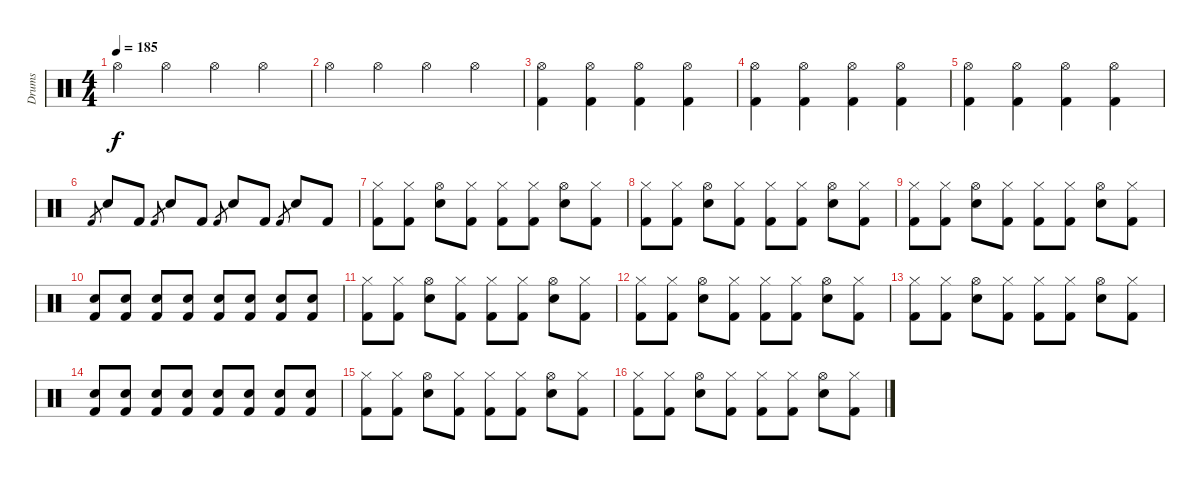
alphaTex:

\track ("Drums" "Drums") {instrument percussion}
\staff {score}
\articulation defaults
\ts (4 4)
\tempo 185
\clef neutral
\ks c "Hi-Hat (open)".4{dy f} "Hi-Hat (open)".4 "Hi-Hat (open)".4 "Hi-Hat (open)".4
|
"Hi-Hat (open)".4 "Hi-Hat (open)".4 "Hi-Hat (open)".4 "Hi-Hat (open)".4 |
("Hi-Hat (open)" "Kick (hit) 2").4 ("Hi-Hat (open)" "Kick (hit) 2").4 ("Hi-Hat (open)" "Kick (hit) 2").4 ("Hi-Hat (open)" "Kick (hit) 2").4 |
("Hi-Hat (open)" "Kick (hit) 2").4 ("Hi-Hat (open)" "Kick (hit) 2").4 ("Hi-Hat (open)" "Kick (hit) 2").4 ("Hi-Hat (open)" "Kick (hit) 2").4 |
("Hi-Hat (open)" "Kick (hit) 2").4 ("Hi-Hat (open)" "Kick (hit) 2").4 ("Hi-Hat (open)" "Kick (hit) 2").4 ("Hi-Hat (open)" "Kick (hit) 2").4 |
"Kick (hit) 2"{h}.8{gr} "Snare (hit) 2".8 "Kick (hit) 2".8 "Kick (hit) 2".8{gr} "Snare (hit) 2".8 "Kick (hit) 2".8 "Kick (hit) 2".8{gr} "Snare (hit) 2".8 "Kick (hit) 2".8 "Kick (hit) 2"{h}.8{gr} "Snare (hit) 2".8 "Kick (hit) 2".8 |
("Hi-Hat (closed)" "Kick (hit) 2").8 ("Hi-Hat (closed)" "Kick (hit) 2").8 ("Hi-Hat (open)" "Snare (hit) 2").8 ("Hi-Hat (closed)" "Kick (hit) 2").8 ("Hi-Hat (closed)" "Kick (hit) 2").8 ("Hi-Hat (closed)" "Kick (hit) 2").8 ("Hi-Hat (open)" "Snare (hit) 2").8 ("Hi-Hat (closed)" "Kick (hit) 2").8 |
("Hi-Hat (closed)" "Kick (hit) 2").8 ("Hi-Hat (closed)" "Kick (hit) 2").8 ("Hi-Hat (open)" "Snare (hit) 2").8 ("Hi-Hat (closed)" "Kick (hit) 2").8 ("Hi-Hat (closed)" "Kick (hit) 2").8 ("Hi-Hat (closed)" "Kick (hit) 2").8 ("Hi-Hat (open)" "Snare (hit) 2").8 ("Hi-Hat (closed)" "Kick (hit) 2").8 |
("Hi-Hat (closed)" "Kick (hit) 2").8 ("Hi-Hat (closed)" "Kick (hit) 2").8 ("Hi-Hat (open)" "Snare (hit) 2").8 ("Hi-Hat (closed)" "Kick (hit) 2").8 ("Hi-Hat (closed)" "Kick (hit) 2").8 ("Hi-Hat (closed)" "Kick (hit) 2").8 ("Hi-Hat (open)" "Snare (hit) 2").8 ("Hi-Hat (closed)" "Kick (hit) 2").8 |
("Snare (hit) 2" "Kick (hit) 2").8 ("Snare (hit) 2" "Kick (hit) 2").8 ("Snare (hit) 2" "Kick (hit) 2").8 ("Snare (hit) 2" "Kick (hit) 2").8 ("Snare (hit) 2" "Kick (hit) 2").8 ("Snare (hit) 2" "Kick (hit) 2").8 ("Snare (hit) 2" "Kick (hit) 2").8 ("Snare (hit) 2" "Kick (hit) 2").8 |
("Hi-Hat (closed)" "Kick (hit) 2").8 ("Hi-Hat (closed)" "Kick (hit) 2").8 ("Hi-Hat (open)" "Snare (hit) 2").8 ("Hi-Hat (closed)" "Kick (hit) 2").8 ("Hi-Hat (closed)" "Kick (hit) 2").8 ("Hi-Hat (closed)" "Kick (hit) 2").8 ("Hi-Hat (open)" "Snare (hit) 2").8 ("Hi-Hat (closed)" "Kick (hit) 2").8 |
("Hi-Hat (closed)" "Kick (hit) 2").8 ("Hi-Hat (closed)" "Kick (hit) 2").8 ("Hi-Hat (open)" "Snare (hit) 2").8 ("Hi-Hat (closed)" "Kick (hit) 2").8 ("Hi-Hat (closed)" "Kick (hit) 2").8 ("Hi-Hat (closed)" "Kick (hit) 2").8 ("Hi-Hat (open)" "Snare (hit) 2").8 ("Hi-Hat (closed)" "Kick (hit) 2").8 |
("Hi-Hat (closed)" "Kick (hit) 2").8 ("Hi-Hat (closed)" "Kick (hit) 2").8 ("Hi-Hat (open)" "Snare (hit) 2").8 ("Hi-Hat (closed)" "Kick (hit) 2").8 ("Hi-Hat (closed)" "Kick (hit) 2").8 ("Hi-Hat (closed)" "Kick (hit) 2").8 ("Hi-Hat (open)" "Snare (hit) 2").8 ("Hi-Hat (closed)" "Kick (hit) 2").8 |
("Snare (hit) 2" "Kick (hit) 2").8 ("Snare (hit) 2" "Kick (hit) 2").8 ("Snare (hit) 2" "Kick (hit) 2").8 ("Snare (hit) 2" "Kick (hit) 2").8 ("Snare (hit) 2" "Kick (hit) 2").8 ("Snare (hit) 2" "Kick (hit) 2").8 ("Snare (hit) 2" "Kick (hit) 2").8 ("Snare (hit) 2" "Kick (hit) 2").8 |
("Hi-Hat (closed)" "Kick (hit) 2").8 ("Hi-Hat (closed)" "Kick (hit) 2").8 ("Hi-Hat (open)" "Snare (hit) 2").8 ("Hi-Hat (closed)" "Kick (hit) 2").8 ("Hi-Hat (closed)" "Kick (hit) 2").8 ("Hi-Hat (closed)" "Kick (hit) 2").8 ("Hi-Hat (open)" "Snare (hit) 2").8 ("Hi-Hat (closed)" "Kick (hit) 2").8 |
("Hi-Hat (closed)" "Kick (hit) 2").8 ("Hi-Hat (closed)" "Kick (hit) 2").8 ("Hi-Hat (open)" "Snare (hit) 2").8 ("Hi-Hat (closed)" "Kick (hit) 2").8 ("Hi-Hat (closed)" "Kick (hit) 2").8 ("Hi-Hat (closed)" "Kick (hit) 2").8 ("Hi-Hat (open)" "Snare (hit) 2").8 ("Hi-Hat (closed)" "Kick (hit) 2").8
